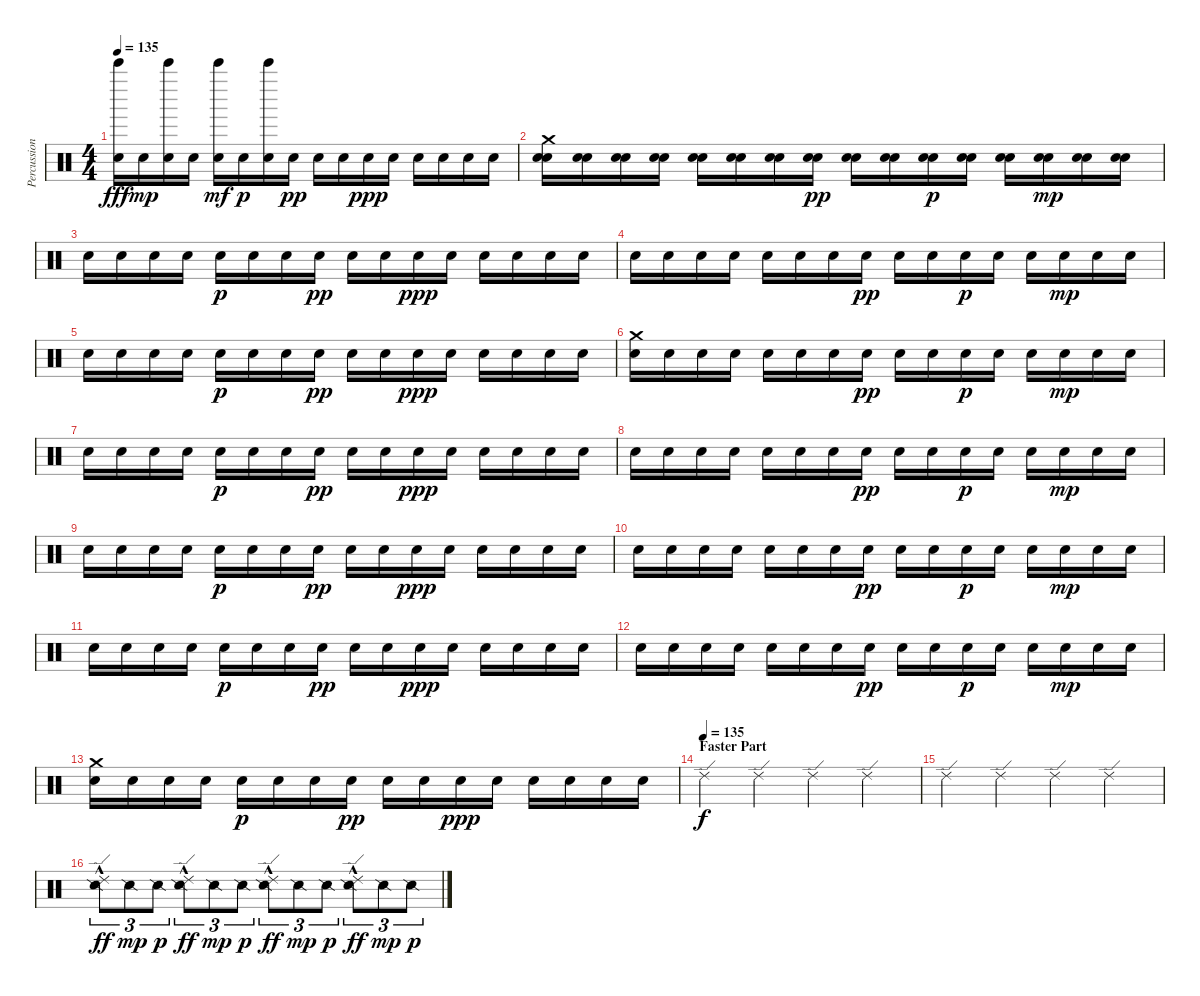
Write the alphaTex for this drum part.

\track ("Percussion" "Percussion") {instrument percussion}
\staff {score}
\articulation defaults
\ts (4 4)
\tempo 135
\clef neutral
\ks c
("Hand Clap (hit)" "Bell Tree (hit)").16{dy fff} "Hand Clap (hit)".16{dy mp} ("Hand Clap (hit)" "Bell Tree (hit)").16 "Hand Clap (hit)".16 ("Hand Clap (hit)" "Bell Tree (hit)").16{dy mf} "Hand Clap (hit)".16{dy p} ("Hand Clap (hit)" "Bell Tree (hit)").16 "Hand Clap (hit)".16{dy pp} "Hand Clap (hit)".16 "Hand Clap (hit)".16 "Hand Clap (hit)".16{dy ppp} "Hand Clap (hit)".16 "Hand Clap (hit)".16 "Hand Clap (hit)".16 "Hand Clap (hit)".16 "Hand Clap (hit)".16 |
("Snare (hit) 2" "Crash medium (hit)" "Hand Clap (hit)").16 ("Snare (hit) 2" "Hand Clap (hit)").16 ("Snare (hit) 2" "Hand Clap (hit)").16 ("Snare (hit) 2" "Hand Clap (hit)").16 ("Snare (hit) 2" "Hand Clap (hit)").16 ("Snare (hit) 2" "Hand Clap (hit)").16 ("Snare (hit) 2" "Hand Clap (hit)").16 ("Snare (hit) 2" "Hand Clap (hit)").16{dy pp} ("Snare (hit) 2" "Hand Clap (hit)").16 ("Snare (hit) 2" "Hand Clap (hit)").16 ("Snare (hit) 2" "Hand Clap (hit)").16{dy p} ("Snare (hit) 2" "Hand Clap (hit)").16 ("Snare (hit) 2" "Hand Clap (hit)").16 ("Snare (hit) 2" "Hand Clap (hit)").16{dy mp} ("Snare (hit) 2" "Hand Clap (hit)").16 ("Snare (hit) 2" "Hand Clap (hit)").16 |
"Hand Clap (hit)".16 "Hand Clap (hit)".16 "Hand Clap (hit)".16 "Hand Clap (hit)".16 "Hand Clap (hit)".16{dy p} "Hand Clap (hit)".16 "Hand Clap (hit)".16 "Hand Clap (hit)".16{dy pp} "Hand Clap (hit)".16 "Hand Clap (hit)".16 "Hand Clap (hit)".16{dy ppp} "Hand Clap (hit)".16 "Hand Clap (hit)".16 "Hand Clap (hit)".16 "Hand Clap (hit)".16 "Hand Clap (hit)".16 |
"Hand Clap (hit)".16 "Hand Clap (hit)".16 "Hand Clap (hit)".16 "Hand Clap (hit)".16 "Hand Clap (hit)".16 "Hand Clap (hit)".16 "Hand Clap (hit)".16 "Hand Clap (hit)".16{dy pp} "Hand Clap (hit)".16 "Hand Clap (hit)".16 "Hand Clap (hit)".16{dy p} "Hand Clap (hit)".16 "Hand Clap (hit)".16 "Hand Clap (hit)".16{dy mp} "Hand Clap (hit)".16 "Hand Clap (hit)".16 |
"Hand Clap (hit)".16 "Hand Clap (hit)".16 "Hand Clap (hit)".16 "Hand Clap (hit)".16 "Hand Clap (hit)".16{dy p} "Hand Clap (hit)".16 "Hand Clap (hit)".16 "Hand Clap (hit)".16{dy pp} "Hand Clap (hit)".16 "Hand Clap (hit)".16 "Hand Clap (hit)".16{dy ppp} "Hand Clap (hit)".16 "Hand Clap (hit)".16 "Hand Clap (hit)".16 "Hand Clap (hit)".16 "Hand Clap (hit)".16 |
("Crash medium (hit)" "Hand Clap (hit)").16 "Hand Clap (hit)".16 "Hand Clap (hit)".16 "Hand Clap (hit)".16 "Hand Clap (hit)".16 "Hand Clap (hit)".16 "Hand Clap (hit)".16 "Hand Clap (hit)".16{dy pp} "Hand Clap (hit)".16 "Hand Clap (hit)".16 "Hand Clap (hit)".16{dy p} "Hand Clap (hit)".16 "Hand Clap (hit)".16 "Hand Clap (hit)".16{dy mp} "Hand Clap (hit)".16 "Hand Clap (hit)".16 |
"Hand Clap (hit)".16 "Hand Clap (hit)".16 "Hand Clap (hit)".16 "Hand Clap (hit)".16 "Hand Clap (hit)".16{dy p} "Hand Clap (hit)".16 "Hand Clap (hit)".16 "Hand Clap (hit)".16{dy pp} "Hand Clap (hit)".16 "Hand Clap (hit)".16 "Hand Clap (hit)".16{dy ppp} "Hand Clap (hit)".16 "Hand Clap (hit)".16 "Hand Clap (hit)".16 "Hand Clap (hit)".16 "Hand Clap (hit)".16 |
"Hand Clap (hit)".16 "Hand Clap (hit)".16 "Hand Clap (hit)".16 "Hand Clap (hit)".16 "Hand Clap (hit)".16 "Hand Clap (hit)".16 "Hand Clap (hit)".16 "Hand Clap (hit)".16{dy pp} "Hand Clap (hit)".16 "Hand Clap (hit)".16 "Hand Clap (hit)".16{dy p} "Hand Clap (hit)".16 "Hand Clap (hit)".16 "Hand Clap (hit)".16{dy mp} "Hand Clap (hit)".16 "Hand Clap (hit)".16 |
"Hand Clap (hit)".16 "Hand Clap (hit)".16 "Hand Clap (hit)".16 "Hand Clap (hit)".16 "Hand Clap (hit)".16{dy p} "Hand Clap (hit)".16 "Hand Clap (hit)".16 "Hand Clap (hit)".16{dy pp} "Hand Clap (hit)".16 "Hand Clap (hit)".16 "Hand Clap (hit)".16{dy ppp} "Hand Clap (hit)".16 "Hand Clap (hit)".16 "Hand Clap (hit)".16 "Hand Clap (hit)".16 "Hand Clap (hit)".16 |
"Hand Clap (hit)".16 "Hand Clap (hit)".16 "Hand Clap (hit)".16 "Hand Clap (hit)".16 "Hand Clap (hit)".16 "Hand Clap (hit)".16 "Hand Clap (hit)".16 "Hand Clap (hit)".16{dy pp} "Hand Clap (hit)".16 "Hand Clap (hit)".16 "Hand Clap (hit)".16{dy p} "Hand Clap (hit)".16 "Hand Clap (hit)".16 "Hand Clap (hit)".16{dy mp} "Hand Clap (hit)".16 "Hand Clap (hit)".16 |
"Hand Clap (hit)".16 "Hand Clap (hit)".16 "Hand Clap (hit)".16 "Hand Clap (hit)".16 "Hand Clap (hit)".16{dy p} "Hand Clap (hit)".16 "Hand Clap (hit)".16 "Hand Clap (hit)".16{dy pp} "Hand Clap (hit)".16 "Hand Clap (hit)".16 "Hand Clap (hit)".16{dy ppp} "Hand Clap (hit)".16 "Hand Clap (hit)".16 "Hand Clap (hit)".16 "Hand Clap (hit)".16 "Hand Clap (hit)".16 |
"Hand Clap (hit)".16 "Hand Clap (hit)".16 "Hand Clap (hit)".16 "Hand Clap (hit)".16 "Hand Clap (hit)".16 "Hand Clap (hit)".16 "Hand Clap (hit)".16 "Hand Clap (hit)".16{dy pp} "Hand Clap (hit)".16 "Hand Clap (hit)".16 "Hand Clap (hit)".16{dy p} "Hand Clap (hit)".16 "Hand Clap (hit)".16 "Hand Clap (hit)".16{dy mp} "Hand Clap (hit)".16 "Hand Clap (hit)".16 |
("Crash medium (hit)" "Hand Clap (hit)").16 "Hand Clap (hit)".16 "Hand Clap (hit)".16 "Hand Clap (hit)".16 "Hand Clap (hit)".16{dy p} "Hand Clap (hit)".16 "Hand Clap (hit)".16 "Hand Clap (hit)".16{dy pp} "Hand Clap (hit)".16 "Hand Clap (hit)".16 "Hand Clap (hit)".16{dy ppp} "Hand Clap (hit)".16 "Hand Clap (hit)".16 "Hand Clap (hit)".16 "Hand Clap (hit)".16 "Hand Clap (hit)".16 |
\section ("" "Faster Part")
\tempo (135)
"Ride (edge) 2".4{dy f} "Ride (edge) 2".4 "Ride (edge) 2".4 "Ride (edge) 2".4 |
"Ride (edge) 2".4 "Ride (edge) 2".4 "Ride (edge) 2".4 "Ride (edge) 2".4 |
("Snare (side stick) 2" "Ride (edge) 2"{hac}).8{tu (3 2) dy ff} "Snare (side stick) 2".8{tu (3 2) dy mp} "Snare (side stick) 2".8{tu (3 2) dy p} ("Snare (side stick) 2" "Ride (edge) 2"{hac}).8{tu (3 2) dy ff} "Snare (side stick) 2".8{tu (3 2) dy mp} "Snare (side stick) 2".8{tu (3 2) dy p} ("Snare (side stick) 2" "Ride (edge) 2"{hac}).8{tu (3 2) dy ff} "Snare (side stick) 2".8{tu (3 2) dy mp} "Snare (side stick) 2".8{tu (3 2) dy p} ("Snare (side stick) 2" "Ride (edge) 2"{hac}).8{tu (3 2) dy ff} "Snare (side stick) 2".8{tu (3 2) dy mp} "Snare (side stick) 2".8{tu (3 2) dy p}
